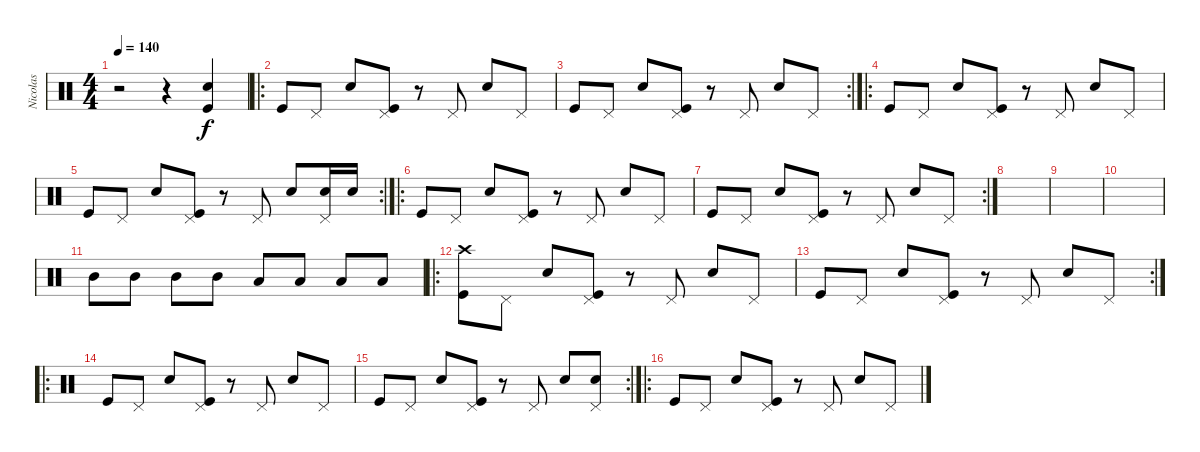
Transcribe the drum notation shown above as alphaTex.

\track ("Nicolas" "Nicolas") {instrument percussion}
\staff {score}
\articulation defaults
\ts (4 4)
\tempo 140
\clef neutral
\ks c
r.2{dy f} r.4 ("Kick (hit)" "Electric Snare (hit)").4 |
\ro "Kick (hit)".8 "Pedal Hi-Hat (hit)".8 "Electric Snare (hit)".8
("Pedal Hi-Hat (hit)" "Kick (hit)").8 r.8 "Pedal Hi-Hat (hit)".8 "Electric Snare (hit)".8 "Pedal Hi-Hat (hit)".8 |
\rc 2 "Kick (hit)".8 "Pedal Hi-Hat (hit)".8 "Electric Snare (hit)".8
("Pedal Hi-Hat (hit)" "Kick (hit)").8 r.8 "Pedal Hi-Hat (hit)".8 "Electric Snare (hit)".8 "Pedal Hi-Hat (hit)".8 |
\ro "Kick (hit)".8 "Pedal Hi-Hat (hit)".8 "Electric Snare (hit)".8
("Pedal Hi-Hat (hit)" "Kick (hit)").8 r.8 "Pedal Hi-Hat (hit)".8 "Electric Snare (hit)".8 "Pedal Hi-Hat (hit)".8 |
\rc 2 "Kick (hit)".8 "Pedal Hi-Hat (hit)".8 "Electric Snare (hit)".8
("Pedal Hi-Hat (hit)" "Kick (hit)").8 r.8 "Pedal Hi-Hat (hit)".8 "Electric Snare (hit)".8 ("Pedal Hi-Hat (hit)" "Electric Snare (hit)").16 "Electric Snare (hit)".16 |
\ro "Kick (hit)".8 "Pedal Hi-Hat (hit)".8 "Electric Snare (hit)".8
("Pedal Hi-Hat (hit)" "Kick (hit)").8 r.8 "Pedal Hi-Hat (hit)".8 "Electric Snare (hit)".8 "Pedal Hi-Hat (hit)".8 |
\rc 2 "Kick (hit)".8 "Pedal Hi-Hat (hit)".8 "Electric Snare (hit)".8
("Pedal Hi-Hat (hit)" "Kick (hit)").8 r.8 "Pedal Hi-Hat (hit)".8 "Electric Snare (hit)".8 "Pedal Hi-Hat (hit)".8 |
|
|
|
"Mid Tom (hit)".8 "Mid Tom (hit)".8 "Mid Tom (hit)".8 "Mid Tom (hit)".8 "Low Tom (hit)".8 "Low Tom (hit)".8 "Low Tom (hit)".8 "Low Tom (hit)".8 |
\ro
("Crash high (hit)" "Kick (hit)").8 "Pedal Hi-Hat (hit)".8 "Electric Snare (hit)".8 ("Pedal Hi-Hat (hit)" "Kick (hit)").8 r.8 "Pedal Hi-Hat (hit)".8 "Electric Snare (hit)".8 "Pedal Hi-Hat (hit)".8 |
\rc 2 "Kick (hit)".8 "Pedal Hi-Hat (hit)".8 "Electric Snare (hit)".8
("Pedal Hi-Hat (hit)" "Kick (hit)").8 r.8 "Pedal Hi-Hat (hit)".8 "Electric Snare (hit)".8 "Pedal Hi-Hat (hit)".8 |
\ro "Kick (hit)".8 "Pedal Hi-Hat (hit)".8 "Electric Snare (hit)".8
("Pedal Hi-Hat (hit)" "Kick (hit)").8 r.8 "Pedal Hi-Hat (hit)".8 "Electric Snare (hit)".8 "Pedal Hi-Hat (hit)".8 |
\rc 2 "Kick (hit)".8 "Pedal Hi-Hat (hit)".8 "Electric Snare (hit)".8
("Pedal Hi-Hat (hit)" "Kick (hit)").8 r.8 "Pedal Hi-Hat (hit)".8 "Electric Snare (hit)".8 ("Pedal Hi-Hat (hit)" "Electric Snare (hit)").8 |
\ro "Kick (hit)".8 "Pedal Hi-Hat (hit)".8 "Electric Snare (hit)".8
("Pedal Hi-Hat (hit)" "Kick (hit)").8 r.8 "Pedal Hi-Hat (hit)".8 "Electric Snare (hit)".8 "Pedal Hi-Hat (hit)".8
